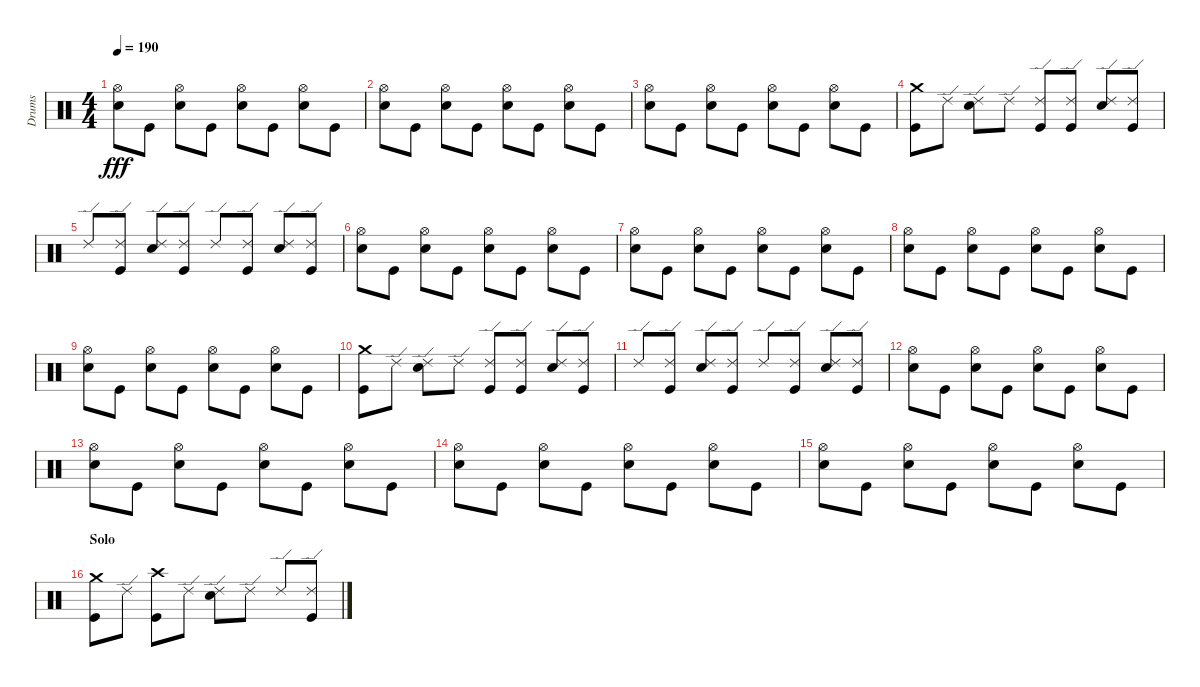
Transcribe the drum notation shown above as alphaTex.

\track ("Drums" "Drums") {instrument percussion}
\staff {score}
\articulation defaults
\ts (4 4)
\tempo 190
\clef neutral
\ks c
("Hi-Hat (open)" "Snare (hit) 2").8{dy fff} "Kick (hit)".8 ("Hi-Hat (open)" "Snare (hit) 2").8 "Kick (hit)".8 ("Hi-Hat (open)" "Snare (hit) 2").8 "Kick (hit)".8 ("Hi-Hat (open)" "Snare (hit) 2").8 "Kick (hit)".8 |
("Hi-Hat (open)" "Snare (hit) 2").8 "Kick (hit)".8 ("Hi-Hat (open)" "Snare (hit) 2").8 "Kick (hit)".8 ("Hi-Hat (open)" "Snare (hit) 2").8 "Kick (hit)".8 ("Hi-Hat (open)" "Snare (hit) 2").8 "Kick (hit)".8 |
("Hi-Hat (open)" "Snare (hit) 2").8 "Kick (hit)".8 ("Hi-Hat (open)" "Snare (hit) 2").8 "Kick (hit)".8 ("Hi-Hat (open)" "Snare (hit) 2").8 "Kick (hit)".8 ("Hi-Hat (open)" "Snare (hit) 2").8 "Kick (hit)".8 |
("Crash medium (hit)" "Kick (hit)").8 "Ride (edge) 2".8 ("Ride (edge) 2" "Snare (hit) 2").8 "Ride (edge) 2".8 ("Ride (edge) 2" "Kick (hit)").8 ("Ride (edge) 2" "Kick (hit)").8 ("Ride (edge) 2" "Snare (hit) 2").8 ("Ride (edge) 2" "Kick (hit)").8 |
"Ride (edge) 2".8 ("Ride (edge) 2" "Kick (hit)").8 ("Ride (edge) 2" "Snare (hit) 2").8 ("Ride (edge) 2" "Kick (hit)").8 "Ride (edge) 2".8 ("Ride (edge) 2" "Kick (hit)").8 ("Ride (edge) 2" "Snare (hit) 2").8 ("Ride (edge) 2" "Kick (hit)").8 |
("Hi-Hat (open)" "Snare (hit) 2").8 "Kick (hit)".8 ("Hi-Hat (open)" "Snare (hit) 2").8 "Kick (hit)".8 ("Hi-Hat (open)" "Snare (hit) 2").8 "Kick (hit)".8 ("Hi-Hat (open)" "Snare (hit) 2").8 "Kick (hit)".8 |
("Hi-Hat (open)" "Snare (hit) 2").8 "Kick (hit)".8 ("Hi-Hat (open)" "Snare (hit) 2").8 "Kick (hit)".8 ("Hi-Hat (open)" "Snare (hit) 2").8 "Kick (hit)".8 ("Hi-Hat (open)" "Snare (hit) 2").8 "Kick (hit)".8 |
("Hi-Hat (open)" "Snare (hit) 2").8 "Kick (hit)".8 ("Hi-Hat (open)" "Snare (hit) 2").8 "Kick (hit)".8 ("Hi-Hat (open)" "Snare (hit) 2").8 "Kick (hit)".8 ("Hi-Hat (open)" "Snare (hit) 2").8 "Kick (hit)".8 |
("Hi-Hat (open)" "Snare (hit) 2").8 "Kick (hit)".8 ("Hi-Hat (open)" "Snare (hit) 2").8 "Kick (hit)".8 ("Hi-Hat (open)" "Snare (hit) 2").8 "Kick (hit)".8 ("Hi-Hat (open)" "Snare (hit) 2").8 "Kick (hit)".8 |
("Crash medium (hit)" "Kick (hit)").8 "Ride (edge) 2".8 ("Ride (edge) 2" "Snare (hit) 2").8 "Ride (edge) 2".8 ("Ride (edge) 2" "Kick (hit)").8 ("Ride (edge) 2" "Kick (hit)").8 ("Ride (edge) 2" "Snare (hit) 2").8 ("Ride (edge) 2" "Kick (hit)").8 |
"Ride (edge) 2".8 ("Ride (edge) 2" "Kick (hit)").8 ("Ride (edge) 2" "Snare (hit) 2").8 ("Ride (edge) 2" "Kick (hit)").8 "Ride (edge) 2".8 ("Ride (edge) 2" "Kick (hit)").8 ("Ride (edge) 2" "Snare (hit) 2").8 ("Ride (edge) 2" "Kick (hit)").8 |
("Hi-Hat (open)" "Snare (hit) 2").8 "Kick (hit)".8 ("Hi-Hat (open)" "Snare (hit) 2").8 "Kick (hit)".8 ("Hi-Hat (open)" "Snare (hit) 2").8 "Kick (hit)".8 ("Hi-Hat (open)" "Snare (hit) 2").8 "Kick (hit)".8 |
("Hi-Hat (open)" "Snare (hit) 2").8 "Kick (hit)".8 ("Hi-Hat (open)" "Snare (hit) 2").8 "Kick (hit)".8 ("Hi-Hat (open)" "Snare (hit) 2").8 "Kick (hit)".8 ("Hi-Hat (open)" "Snare (hit) 2").8 "Kick (hit)".8 |
("Hi-Hat (open)" "Snare (hit) 2").8 "Kick (hit)".8 ("Hi-Hat (open)" "Snare (hit) 2").8 "Kick (hit)".8 ("Hi-Hat (open)" "Snare (hit) 2").8 "Kick (hit)".8 ("Hi-Hat (open)" "Snare (hit) 2").8 "Kick (hit)".8 |
("Hi-Hat (open)" "Snare (hit) 2").8 "Kick (hit)".8 ("Hi-Hat (open)" "Snare (hit) 2").8 "Kick (hit)".8 ("Hi-Hat (open)" "Snare (hit) 2").8 "Kick (hit)".8 ("Hi-Hat (open)" "Snare (hit) 2").8 "Kick (hit)".8 |
\section ("" "Solo")
("Crash medium (hit)" "Kick (hit)").8 "Ride (edge) 2".8 ("Crash high (hit)" "Kick (hit)").8 "Ride (edge) 2".8 ("Ride (edge) 2" "Snare (hit) 2").8 "Ride (edge) 2".8 "Ride (edge) 2".8 ("Ride (edge) 2" "Kick (hit)").8
